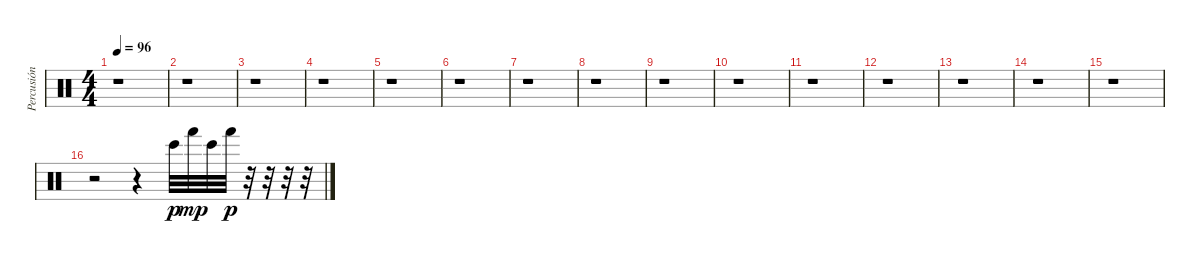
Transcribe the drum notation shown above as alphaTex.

\track ("Percusión" "Percusión") {instrument percussion}
\staff {score}
\articulation defaults
\ts (4 4)
\tempo 96
\clef neutral
\ks c
r.1{dy p} |
r.1 |
r.1 |
r.1 |
r.1 |
r.1 |
r.1 |
r.1 |
r.1 |
r.1 |
r.1 |
r.1 |
r.1 |
r.1 |
r.1 |
r.2 r.4 "Bongo High (hit)".32 "Hand (hit)".32{dy mp} "Bongo High (hit)".32 "Hand (hit)".32{dy p} r.32 r.32 r.32 r.32
